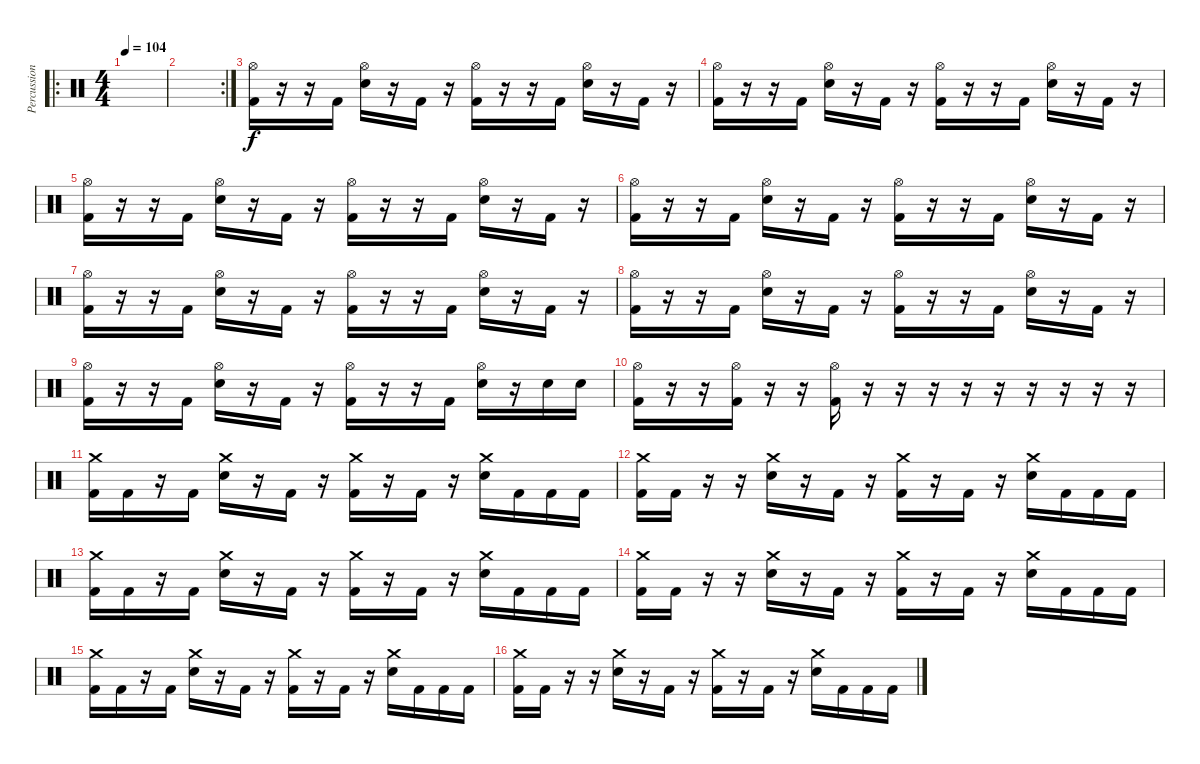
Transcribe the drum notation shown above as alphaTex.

\track ("Percussion" "Percussion") {instrument percussion}
\staff {score}
\articulation defaults
\ro
\ts (4 4)
\tempo 104
\clef neutral
\ks c
|
\rc 2
|
("Hi-Hat (open)" "Kick (hit) 2").16 r.16 r.16 "Kick (hit) 2".16 ("Hi-Hat (open)" "Electric Snare (hit)").16 r.16 "Kick (hit) 2".16 r.16 ("Hi-Hat (open)" "Kick (hit) 2").16 r.16 r.16 "Kick (hit) 2".16 ("Hi-Hat (open)" "Electric Snare (hit)").16 r.16 "Kick (hit) 2".16 r.16 |
("Hi-Hat (open)" "Kick (hit) 2").16 r.16 r.16 "Kick (hit) 2".16 ("Hi-Hat (open)" "Electric Snare (hit)").16 r.16 "Kick (hit) 2".16 r.16 ("Hi-Hat (open)" "Kick (hit) 2").16 r.16 r.16 "Kick (hit) 2".16 ("Hi-Hat (open)" "Electric Snare (hit)").16 r.16 "Kick (hit) 2".16 r.16 |
("Hi-Hat (open)" "Kick (hit) 2").16 r.16 r.16 "Kick (hit) 2".16 ("Hi-Hat (open)" "Electric Snare (hit)").16 r.16 "Kick (hit) 2".16 r.16 ("Hi-Hat (open)" "Kick (hit) 2").16 r.16 r.16 "Kick (hit) 2".16 ("Hi-Hat (open)" "Electric Snare (hit)").16 r.16 "Kick (hit) 2".16 r.16 |
("Hi-Hat (open)" "Kick (hit) 2").16 r.16 r.16 "Kick (hit) 2".16 ("Hi-Hat (open)" "Electric Snare (hit)").16 r.16 "Kick (hit) 2".16 r.16 ("Hi-Hat (open)" "Kick (hit) 2").16 r.16 r.16 "Kick (hit) 2".16 ("Hi-Hat (open)" "Electric Snare (hit)").16 r.16 "Kick (hit) 2".16 r.16 |
("Hi-Hat (open)" "Kick (hit) 2").16 r.16 r.16 "Kick (hit) 2".16 ("Hi-Hat (open)" "Electric Snare (hit)").16 r.16 "Kick (hit) 2".16 r.16 ("Hi-Hat (open)" "Kick (hit) 2").16 r.16 r.16 "Kick (hit) 2".16 ("Hi-Hat (open)" "Electric Snare (hit)").16 r.16 "Kick (hit) 2".16 r.16 |
("Hi-Hat (open)" "Kick (hit) 2").16 r.16 r.16 "Kick (hit) 2".16 ("Hi-Hat (open)" "Electric Snare (hit)").16 r.16 "Kick (hit) 2".16 r.16 ("Hi-Hat (open)" "Kick (hit) 2").16 r.16 r.16 "Kick (hit) 2".16 ("Hi-Hat (open)" "Electric Snare (hit)").16 r.16 "Kick (hit) 2".16 r.16 |
("Hi-Hat (open)" "Kick (hit) 2").16 r.16 r.16 "Kick (hit) 2".16 ("Hi-Hat (open)" "Electric Snare (hit)").16 r.16 "Kick (hit) 2".16 r.16 ("Hi-Hat (open)" "Kick (hit) 2").16 r.16 r.16 "Kick (hit) 2".16 ("Hi-Hat (open)" "Electric Snare (hit)").16 r.16 "Electric Snare (hit)".16 "Electric Snare (hit)".16 |
("Hi-Hat (open)" "Kick (hit) 2").16 r.16 r.16 ("Hi-Hat (open)" "Kick (hit) 2").16 r.16 r.16 ("Hi-Hat (open)" "Kick (hit) 2").16 r.16 r.16 r.16 r.16 r.16 r.16 r.16 r.16 r.16 |
("Crash medium (hit)" "Kick (hit) 2").16 "Kick (hit) 2".16 r.16 "Kick (hit) 2".16 ("Crash medium (hit)" "Electric Snare (hit)").16 r.16 "Kick (hit) 2".16 r.16 ("Crash medium (hit)" "Kick (hit) 2").16 r.16 "Kick (hit) 2".16 r.16 ("Crash medium (hit)" "Electric Snare (hit)").16 "Kick (hit) 2".16 "Kick (hit) 2".16 "Kick (hit) 2".16 |
("Crash medium (hit)" "Kick (hit) 2").16 "Kick (hit) 2".16 r.16 r.16 ("Crash medium (hit)" "Electric Snare (hit)").16 r.16 "Kick (hit) 2".16 r.16 ("Crash medium (hit)" "Kick (hit) 2").16 r.16 "Kick (hit) 2".16 r.16 ("Crash medium (hit)" "Electric Snare (hit)").16 "Kick (hit) 2".16 "Kick (hit) 2".16 "Kick (hit) 2".16 |
("Crash medium (hit)" "Kick (hit) 2").16 "Kick (hit) 2".16 r.16 "Kick (hit) 2".16 ("Crash medium (hit)" "Electric Snare (hit)").16 r.16 "Kick (hit) 2".16 r.16 ("Crash medium (hit)" "Kick (hit) 2").16 r.16 "Kick (hit) 2".16 r.16 ("Crash medium (hit)" "Electric Snare (hit)").16 "Kick (hit) 2".16 "Kick (hit) 2".16 "Kick (hit) 2".16 |
("Crash medium (hit)" "Kick (hit) 2").16 "Kick (hit) 2".16 r.16 r.16 ("Crash medium (hit)" "Electric Snare (hit)").16 r.16 "Kick (hit) 2".16 r.16 ("Crash medium (hit)" "Kick (hit) 2").16 r.16 "Kick (hit) 2".16 r.16 ("Crash medium (hit)" "Electric Snare (hit)").16 "Kick (hit) 2".16 "Kick (hit) 2".16 "Kick (hit) 2".16 |
("Crash medium (hit)" "Kick (hit) 2").16 "Kick (hit) 2".16 r.16 "Kick (hit) 2".16 ("Crash medium (hit)" "Electric Snare (hit)").16 r.16 "Kick (hit) 2".16 r.16 ("Crash medium (hit)" "Kick (hit) 2").16 r.16 "Kick (hit) 2".16 r.16 ("Crash medium (hit)" "Electric Snare (hit)").16 "Kick (hit) 2".16 "Kick (hit) 2".16 "Kick (hit) 2".16 |
("Crash medium (hit)" "Kick (hit) 2").16 "Kick (hit) 2".16 r.16 r.16 ("Crash medium (hit)" "Electric Snare (hit)").16 r.16 "Kick (hit) 2".16 r.16 ("Crash medium (hit)" "Kick (hit) 2").16 r.16 "Kick (hit) 2".16 r.16 ("Crash medium (hit)" "Electric Snare (hit)").16 "Kick (hit) 2".16 "Kick (hit) 2".16 "Kick (hit) 2".16
